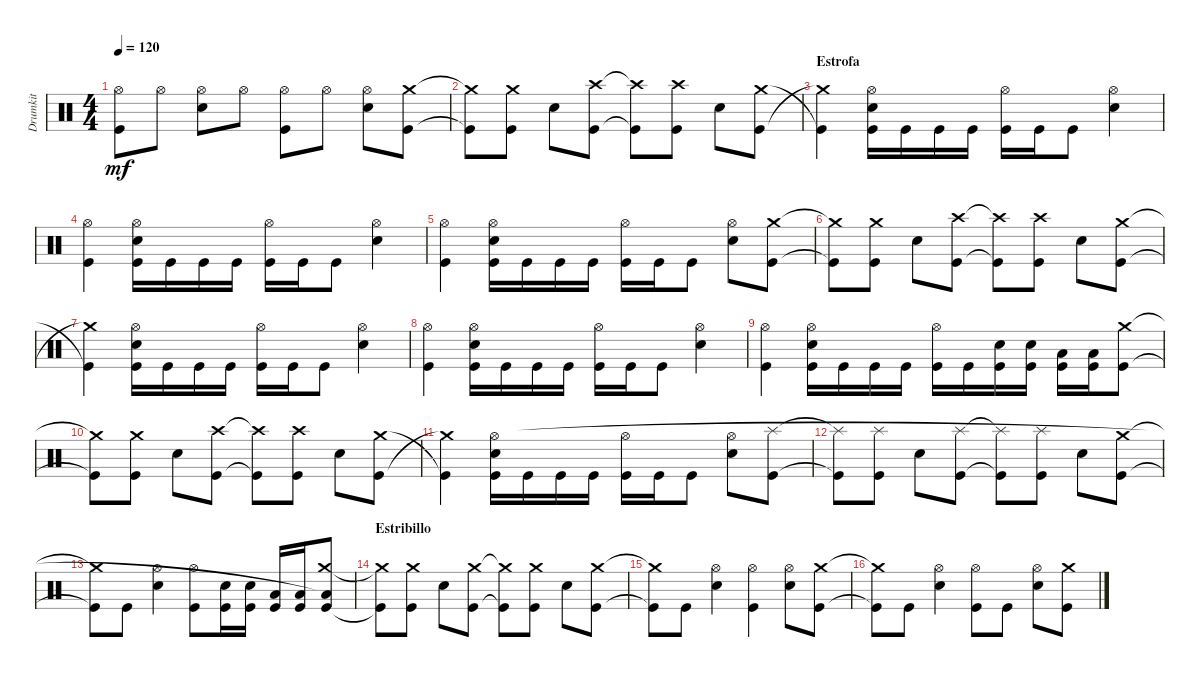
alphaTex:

\track ("Drumkit" "Drumkit") {instrument percussion}
\staff {score}
\articulation defaults
\ts (4 4)
\tempo 120
\clef neutral
\ks c
("Hi-Hat (open)" "Kick (hit)").8{dy mf} "Hi-Hat (open)".8 ("Hi-Hat (open)" "Snare (hit) 2").8 "Hi-Hat (open)".8 ("Hi-Hat (open)" "Kick (hit)").8 "Hi-Hat (open)".8 ("Hi-Hat (open)" "Snare (hit) 2").8 ("Kick (hit)" "Crash medium (hit)").8 |
("Kick (hit)"{t} "Crash medium (hit)"{t}).8 ("Crash medium (hit)" "Kick (hit)").8 "Snare (hit) 2".8 ("Kick (hit)" "Crash high (hit)").8 ("Kick (hit)"{t} "Crash high (hit)"{t}).8 ("Kick (hit)" "Crash high (hit)").8 "Snare (hit) 2".8 ("Kick (hit)" "Crash medium (hit)").8 |
\section ("" "Estrofa")
("Crash medium (hit)"{t} "Kick (hit)"{t}).4 ("Kick (hit)" "Snare (hit) 2" "Hi-Hat (open)").16 "Kick (hit)".16 "Kick (hit)".16 "Kick (hit)".16 ("Kick (hit)" "Hi-Hat (open)").16 "Kick (hit)".16 "Kick (hit)".8 ("Snare (hit) 2" "Hi-Hat (open)").4 |
("Kick (hit)" "Hi-Hat (open)").4 ("Kick (hit)" "Snare (hit) 2" "Hi-Hat (open)").16 "Kick (hit)".16 "Kick (hit)".16 "Kick (hit)".16 ("Kick (hit)" "Hi-Hat (open)").16 "Kick (hit)".16 "Kick (hit)".8 ("Snare (hit) 2" "Hi-Hat (open)").4 |
("Kick (hit)" "Hi-Hat (open)").4 ("Kick (hit)" "Snare (hit) 2" "Hi-Hat (open)").16 "Kick (hit)".16 "Kick (hit)".16 "Kick (hit)".16 ("Kick (hit)" "Hi-Hat (open)").16 "Kick (hit)".16 "Kick (hit)".8 ("Snare (hit) 2" "Hi-Hat (open)").8 ("Kick (hit)" "Crash medium (hit)").8 |
("Kick (hit)"{t} "Crash medium (hit)"{t}).8 ("Crash medium (hit)" "Kick (hit)").8 "Snare (hit) 2".8 ("Kick (hit)" "Crash high (hit)").8 ("Kick (hit)"{t} "Crash high (hit)"{t}).8 ("Kick (hit)" "Crash high (hit)").8 "Snare (hit) 2".8 ("Kick (hit)" "Crash medium (hit)").8 |
("Crash medium (hit)"{t} "Kick (hit)"{t}).4 ("Kick (hit)" "Snare (hit) 2" "Hi-Hat (open)").16 "Kick (hit)".16 "Kick (hit)".16 "Kick (hit)".16 ("Kick (hit)" "Hi-Hat (open)").16 "Kick (hit)".16 "Kick (hit)".8 ("Snare (hit) 2" "Hi-Hat (open)").4 |
("Kick (hit)" "Hi-Hat (open)").4 ("Kick (hit)" "Snare (hit) 2" "Hi-Hat (open)").16 "Kick (hit)".16 "Kick (hit)".16 "Kick (hit)".16 ("Kick (hit)" "Hi-Hat (open)").16 "Kick (hit)".16 "Kick (hit)".8 ("Snare (hit) 2" "Hi-Hat (open)").4 |
("Kick (hit)" "Hi-Hat (open)").4 ("Kick (hit)" "Snare (hit) 2" "Hi-Hat (open)").16 "Kick (hit)".16 "Kick (hit)".16 "Kick (hit)".16 ("Kick (hit)" "Hi-Hat (open)").16 "Kick (hit)".16 ("Kick (hit)" "Snare (hit) 2").16 ("Snare (hit) 2" "Kick (hit)").16 ("Kick (hit)" "Low Floor Tom (hit)").16 ("Low Floor Tom (hit)" "Kick (hit)").16 ("Kick (hit)" "Crash medium (hit)").8 |
("Kick (hit)"{t} "Crash medium (hit)"{t}).8 ("Crash medium (hit)" "Kick (hit)").8 "Snare (hit) 2".8 ("Kick (hit)" "Crash high (hit)").8 ("Kick (hit)"{t} "Crash high (hit)"{t}).8 ("Kick (hit)" "Crash high (hit)").8 "Snare (hit) 2".8 ("Kick (hit)" "Crash medium (hit)").8 |
("Crash medium (hit)"{t} "Kick (hit)"{t}).4 ("Kick (hit)" "Snare (hit) 2" "Hi-Hat (open)").16 "Kick (hit)".16 "Kick (hit)".16 "Kick (hit)".16 ("Kick (hit)" "Hi-Hat (open)").16 "Kick (hit)".16 "Kick (hit)".8 ("Snare (hit) 2" "Hi-Hat (open)").8 ("Kick (hit)" "Splash (hit)").8 |
("Kick (hit)"{t} "Splash (hit)"{t}).8 ("Kick (hit)" "Splash (hit)").8 "Snare (hit) 2".8 ("Kick (hit)" "Splash (hit)").8 ("Kick (hit)"{t} "Splash (hit)"{t}).8 ("Kick (hit)" "Splash (hit)").8 "Snare (hit) 2".8 ("Kick (hit)" "Crash medium (hit)").8 |
("Kick (hit)"{t} "Crash medium (hit)"{t}).8 "Kick (hit)".8 ("Snare (hit) 2" "Hi-Hat (open)").4 ("Kick (hit)" "Hi-Hat (open)").8 ("Kick (hit)" "Snare (hit) 2").16 ("Snare (hit) 2" "Kick (hit)").16 ("Kick (hit)" "Low Floor Tom (hit)").16 ("Low Floor Tom (hit)" "Kick (hit)").16 ("Kick (hit)" "Crash medium (hit)" "Low Floor Tom (hit)"{t}).8 |
\section ("" "Estribillo")
("Kick (hit)"{t} "Crash medium (hit)"{t}).8 ("Kick (hit)" "Crash medium (hit)").8 "Snare (hit) 2".8 ("Kick (hit)" "Crash medium (hit)").8 ("Kick (hit)"{t} "Crash medium (hit)"{t}).8 ("Kick (hit)" "Crash medium (hit)").8 "Snare (hit) 2".8 ("Kick (hit)" "Crash medium (hit)").8 |
("Kick (hit)"{t} "Crash medium (hit)"{t}).8 "Kick (hit)".8 ("Snare (hit) 2" "Hi-Hat (open)").4 ("Kick (hit)" "Hi-Hat (open)").4 ("Snare (hit) 2" "Hi-Hat (open)").8 ("Kick (hit)" "Crash medium (hit)").8 |
("Kick (hit)"{t} "Crash medium (hit)"{t}).8 "Kick (hit)".8 ("Snare (hit) 2" "Hi-Hat (open)").4 ("Kick (hit)" "Hi-Hat (open)").8 "Kick (hit)".8 ("Snare (hit) 2" "Hi-Hat (open)").8 ("Kick (hit)" "Crash medium (hit)").8
